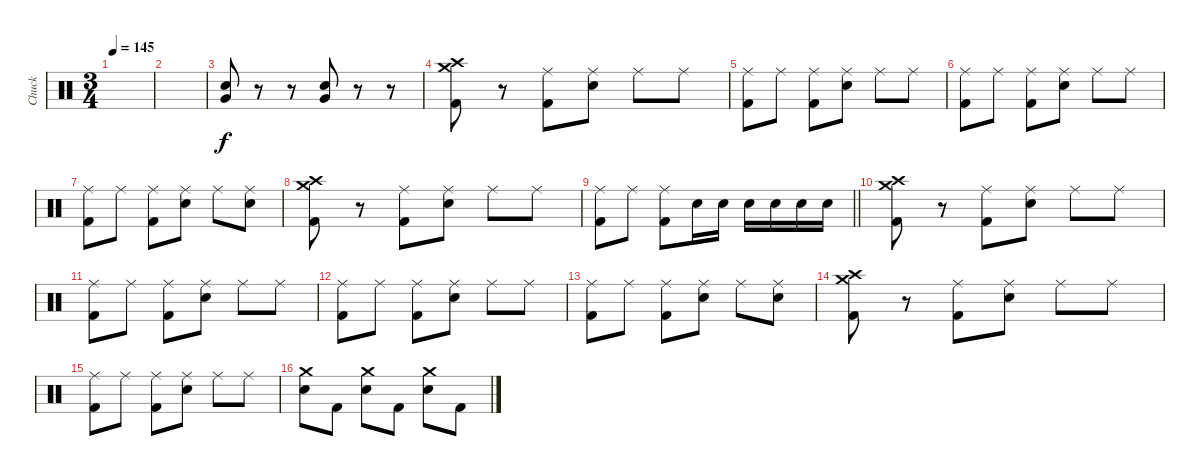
\track ("Chuck" "Chuck") {instrument percussion}
\staff {score}
\articulation defaults
\ts (3 4)
\tempo 145
\clef neutral
\ks c
|
|
("Electric Snare (hit)" "Very Low Tom (hit)").8 r.8 r.8 ("Electric Snare (hit)" "Very Low Tom (hit)").8 r.8 r.8 |
("Crash medium (hit)" "Crash high (hit)" "Kick (hit) 2").8 r.8 ("Ride (middle)" "Kick (hit) 2").8 ("Ride (middle)" "Electric Snare (hit)").8 "Ride (middle)".8 "Ride (middle)".8 |
("Ride (middle)" "Kick (hit) 2").8 "Ride (middle)".8 ("Ride (middle)" "Kick (hit) 2").8 ("Ride (middle)" "Electric Snare (hit)").8 "Ride (middle)".8 "Ride (middle)".8 |
("Ride (middle)" "Kick (hit) 2").8 "Ride (middle)".8 ("Ride (middle)" "Kick (hit) 2").8 ("Ride (middle)" "Electric Snare (hit)").8 "Ride (middle)".8 "Ride (middle)".8 |
("Ride (middle)" "Kick (hit) 2").8 "Ride (middle)".8 ("Ride (middle)" "Kick (hit) 2").8 ("Ride (middle)" "Electric Snare (hit)").8 "Ride (middle)".8 ("Ride (middle)" "Electric Snare (hit)").8 |
("Crash medium (hit)" "Crash high (hit)" "Kick (hit) 2").8 r.8 ("Ride (middle)" "Kick (hit) 2").8 ("Ride (middle)" "Electric Snare (hit)").8 "Ride (middle)".8 "Ride (middle)".8 |
\barLineRight lightlight
("Ride (middle)" "Kick (hit) 2").8 "Ride (middle)".8 ("Ride (middle)" "Kick (hit) 2").8 "Electric Snare (hit)".16 "Electric Snare (hit)".16 "Electric Snare (hit)".16 "Electric Snare (hit)".16 "Electric Snare (hit)".16 "Electric Snare (hit)".16 |
("Crash medium (hit)" "Crash high (hit)" "Kick (hit) 2").8 r.8 ("Ride (middle)" "Kick (hit) 2").8 ("Ride (middle)" "Electric Snare (hit)").8 "Ride (middle)".8 "Ride (middle)".8 |
("Ride (middle)" "Kick (hit) 2").8 "Ride (middle)".8 ("Ride (middle)" "Kick (hit) 2").8 ("Ride (middle)" "Electric Snare (hit)").8 "Ride (middle)".8 "Ride (middle)".8 |
("Ride (middle)" "Kick (hit) 2").8 "Ride (middle)".8 ("Ride (middle)" "Kick (hit) 2").8 ("Ride (middle)" "Electric Snare (hit)").8 "Ride (middle)".8 "Ride (middle)".8 |
("Ride (middle)" "Kick (hit) 2").8 "Ride (middle)".8 ("Ride (middle)" "Kick (hit) 2").8 ("Ride (middle)" "Electric Snare (hit)").8 "Ride (middle)".8 ("Ride (middle)" "Electric Snare (hit)").8 |
("Crash medium (hit)" "Crash high (hit)" "Kick (hit) 2").8 r.8 ("Ride (middle)" "Kick (hit) 2").8 ("Ride (middle)" "Electric Snare (hit)").8 "Ride (middle)".8 "Ride (middle)".8 |
("Ride (middle)" "Kick (hit) 2").8 "Ride (middle)".8 ("Ride (middle)" "Kick (hit) 2").8 ("Ride (middle)" "Electric Snare (hit)").8 "Ride (middle)".8 "Ride (middle)".8 |
("Crash medium (hit)" "Electric Snare (hit)").8 "Kick (hit) 2".8 ("Crash medium (hit)" "Electric Snare (hit)").8 "Kick (hit) 2".8 ("Crash medium (hit)" "Electric Snare (hit)").8 "Kick (hit) 2".8
